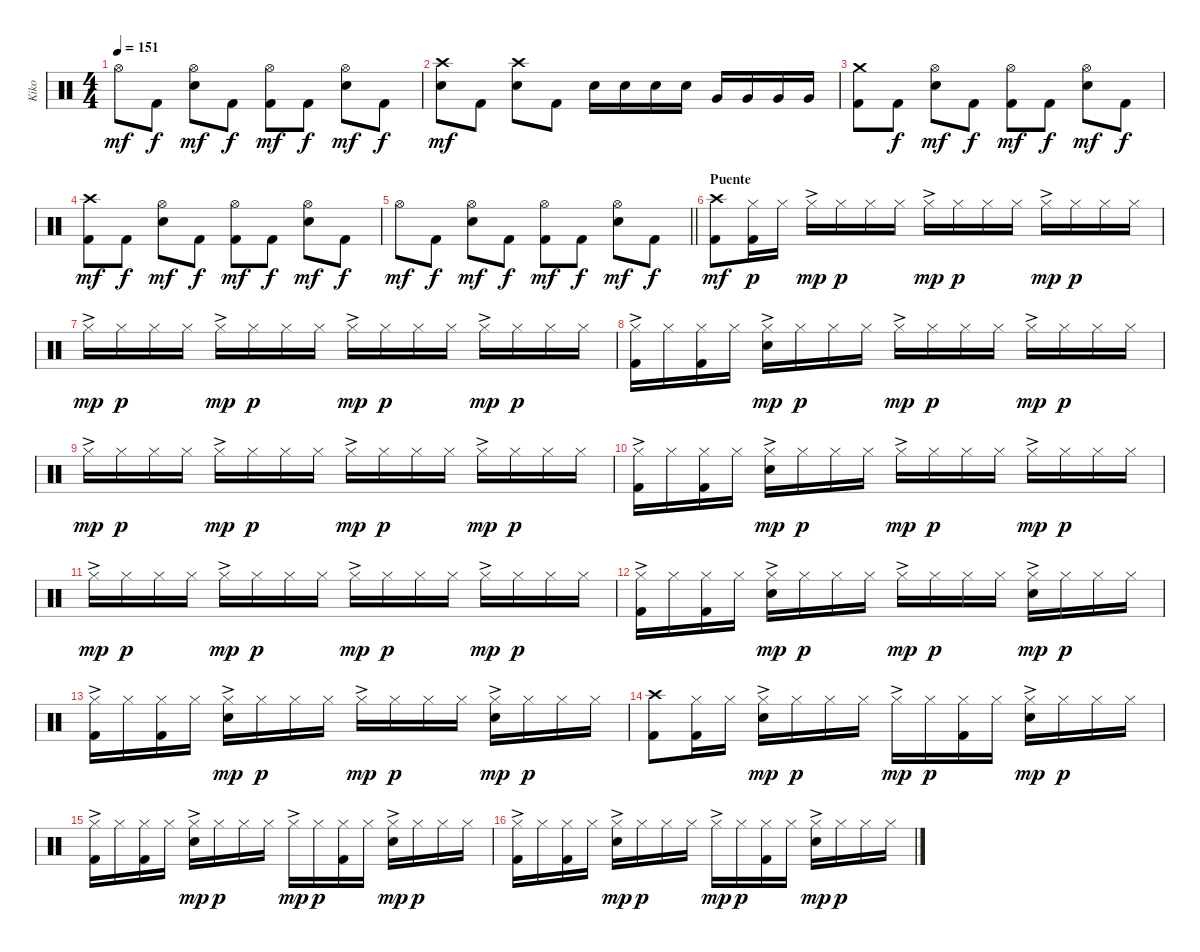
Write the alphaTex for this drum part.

\track ("Kiko" "Kiko") {instrument percussion}
\staff {score}
\articulation defaults
\ts (4 4)
\tempo 151
\clef neutral
\ks c "Hi-Hat (open)".8{dy mf} "Kick (hit) 2".8{dy f}
("Hi-Hat (open)" "Electric Snare (hit)").8{dy mf} "Kick (hit) 2".8{dy f} ("Hi-Hat (open)" "Kick (hit) 2").8{dy mf} "Kick (hit) 2".8{dy f} ("Hi-Hat (open)" "Electric Snare (hit)").8{dy mf} "Kick (hit) 2".8{dy f} |
("Crash high (hit)" "Electric Snare (hit)").8{dy mf} "Kick (hit) 2".8 ("Crash high (hit)" "Electric Snare (hit)").8 "Kick (hit) 2".8 "Electric Snare (hit)".16 "Electric Snare (hit)".16 "Electric Snare (hit)".16 "Electric Snare (hit)".16 "Very Low Tom (hit)".16 "Very Low Tom (hit)".16 "Very Low Tom (hit)".16 "Very Low Tom (hit)".16 |
("Crash medium (hit)" "Kick (hit) 2").8 "Kick (hit) 2".8{dy f} ("Hi-Hat (open)" "Electric Snare (hit)").8{dy mf} "Kick (hit) 2".8{dy f} ("Hi-Hat (open)" "Kick (hit) 2").8{dy mf} "Kick (hit) 2".8{dy f} ("Hi-Hat (open)" "Electric Snare (hit)").8{dy mf} "Kick (hit) 2".8{dy f} |
("Crash high (hit)" "Kick (hit) 2").8{dy mf} "Kick (hit) 2".8{dy f} ("Hi-Hat (open)" "Electric Snare (hit)").8{dy mf} "Kick (hit) 2".8{dy f} ("Hi-Hat (open)" "Kick (hit) 2").8{dy mf} "Kick (hit) 2".8{dy f} ("Hi-Hat (open)" "Electric Snare (hit)").8{dy mf} "Kick (hit) 2".8{dy f} |
\barLineRight lightlight "Hi-Hat (open)".8{dy mf} "Kick (hit) 2".8{dy f}
("Hi-Hat (open)" "Electric Snare (hit)").8{dy mf} "Kick (hit) 2".8{dy f} ("Hi-Hat (open)" "Kick (hit) 2").8{dy mf} "Kick (hit) 2".8{dy f} ("Hi-Hat (open)" "Electric Snare (hit)").8{dy mf} "Kick (hit) 2".8{dy f} |
\section ("" "Puente")
("Crash high (hit)" "Kick (hit) 2").8{dy mf} ("Hi-Hat (closed)" "Kick (hit) 2").16{dy p} "Hi-Hat (closed)".16 "Hi-Hat (closed)"{ac}.16{dy mp} "Hi-Hat (closed)".16{dy p} "Hi-Hat (closed)".16 "Hi-Hat (closed)".16 "Hi-Hat (closed)"{ac}.16{dy mp} "Hi-Hat (closed)".16{dy p} "Hi-Hat (closed)".16 "Hi-Hat (closed)".16 "Hi-Hat (closed)"{ac}.16{dy mp} "Hi-Hat (closed)".16{dy p} "Hi-Hat (closed)".16 "Hi-Hat (closed)".16 |
"Hi-Hat (closed)"{ac}.16{dy mp} "Hi-Hat (closed)".16{dy p} "Hi-Hat (closed)".16 "Hi-Hat (closed)".16 "Hi-Hat (closed)"{ac}.16{dy mp} "Hi-Hat (closed)".16{dy p} "Hi-Hat (closed)".16 "Hi-Hat (closed)".16 "Hi-Hat (closed)"{ac}.16{dy mp} "Hi-Hat (closed)".16{dy p} "Hi-Hat (closed)".16 "Hi-Hat (closed)".16 "Hi-Hat (closed)"{ac}.16{dy mp} "Hi-Hat (closed)".16{dy p} "Hi-Hat (closed)".16 "Hi-Hat (closed)".16 |
("Hi-Hat (closed)"{ac} "Kick (hit) 2").16 "Hi-Hat (closed)".16 ("Hi-Hat (closed)" "Kick (hit) 2").16 "Hi-Hat (closed)".16 ("Hi-Hat (closed)"{ac} "Electric Snare (hit)"{ac}).16{dy mp} "Hi-Hat (closed)".16{dy p} "Hi-Hat (closed)".16 "Hi-Hat (closed)".16 "Hi-Hat (closed)"{ac}.16{dy mp} "Hi-Hat (closed)".16{dy p} "Hi-Hat (closed)".16 "Hi-Hat (closed)".16 "Hi-Hat (closed)"{ac}.16{dy mp} "Hi-Hat (closed)".16{dy p} "Hi-Hat (closed)".16 "Hi-Hat (closed)".16 |
"Hi-Hat (closed)"{ac}.16{dy mp} "Hi-Hat (closed)".16{dy p} "Hi-Hat (closed)".16 "Hi-Hat (closed)".16 "Hi-Hat (closed)"{ac}.16{dy mp} "Hi-Hat (closed)".16{dy p} "Hi-Hat (closed)".16 "Hi-Hat (closed)".16 "Hi-Hat (closed)"{ac}.16{dy mp} "Hi-Hat (closed)".16{dy p} "Hi-Hat (closed)".16 "Hi-Hat (closed)".16 "Hi-Hat (closed)"{ac}.16{dy mp} "Hi-Hat (closed)".16{dy p} "Hi-Hat (closed)".16 "Hi-Hat (closed)".16 |
("Hi-Hat (closed)"{ac} "Kick (hit) 2").16 "Hi-Hat (closed)".16 ("Hi-Hat (closed)" "Kick (hit) 2").16 "Hi-Hat (closed)".16 ("Hi-Hat (closed)"{ac} "Electric Snare (hit)"{ac}).16{dy mp} "Hi-Hat (closed)".16{dy p} "Hi-Hat (closed)".16 "Hi-Hat (closed)".16 "Hi-Hat (closed)"{ac}.16{dy mp} "Hi-Hat (closed)".16{dy p} "Hi-Hat (closed)".16 "Hi-Hat (closed)".16 "Hi-Hat (closed)"{ac}.16{dy mp} "Hi-Hat (closed)".16{dy p} "Hi-Hat (closed)".16 "Hi-Hat (closed)".16 |
"Hi-Hat (closed)"{ac}.16{dy mp} "Hi-Hat (closed)".16{dy p} "Hi-Hat (closed)".16 "Hi-Hat (closed)".16 "Hi-Hat (closed)"{ac}.16{dy mp} "Hi-Hat (closed)".16{dy p} "Hi-Hat (closed)".16 "Hi-Hat (closed)".16 "Hi-Hat (closed)"{ac}.16{dy mp} "Hi-Hat (closed)".16{dy p} "Hi-Hat (closed)".16 "Hi-Hat (closed)".16 "Hi-Hat (closed)"{ac}.16{dy mp} "Hi-Hat (closed)".16{dy p} "Hi-Hat (closed)".16 "Hi-Hat (closed)".16 |
("Hi-Hat (closed)"{ac} "Kick (hit) 2").16 "Hi-Hat (closed)".16 ("Hi-Hat (closed)" "Kick (hit) 2").16 "Hi-Hat (closed)".16 ("Hi-Hat (closed)"{ac} "Electric Snare (hit)"{ac}).16{dy mp} "Hi-Hat (closed)".16{dy p} "Hi-Hat (closed)".16 "Hi-Hat (closed)".16 "Hi-Hat (closed)"{ac}.16{dy mp} "Hi-Hat (closed)".16{dy p} "Hi-Hat (closed)".16 "Hi-Hat (closed)".16 ("Hi-Hat (closed)"{ac} "Electric Snare (hit)"{ac}).16{dy mp} "Hi-Hat (closed)".16{dy p} "Hi-Hat (closed)".16 "Hi-Hat (closed)".16 |
("Hi-Hat (closed)"{ac} "Kick (hit) 2").16 "Hi-Hat (closed)".16 ("Hi-Hat (closed)" "Kick (hit) 2").16 "Hi-Hat (closed)".16 ("Hi-Hat (closed)"{ac} "Electric Snare (hit)"{ac}).16{dy mp} "Hi-Hat (closed)".16{dy p} "Hi-Hat (closed)".16 "Hi-Hat (closed)".16 "Hi-Hat (closed)"{ac}.16{dy mp} "Hi-Hat (closed)".16{dy p} "Hi-Hat (closed)".16 "Hi-Hat (closed)".16 ("Hi-Hat (closed)"{ac} "Electric Snare (hit)"{ac}).16{dy mp} "Hi-Hat (closed)".16{dy p} "Hi-Hat (closed)".16 "Hi-Hat (closed)".16 |
("Crash high (hit)" "Kick (hit) 2").8 ("Hi-Hat (closed)" "Kick (hit) 2").16 "Hi-Hat (closed)".16 ("Hi-Hat (closed)"{ac} "Electric Snare (hit)"{ac}).16{dy mp} "Hi-Hat (closed)".16{dy p} "Hi-Hat (closed)".16 "Hi-Hat (closed)".16 "Hi-Hat (closed)"{ac}.16{dy mp} "Hi-Hat (closed)".16{dy p} ("Hi-Hat (closed)" "Kick (hit) 2").16 "Hi-Hat (closed)".16 ("Hi-Hat (closed)"{ac} "Electric Snare (hit)"{ac}).16{dy mp} "Hi-Hat (closed)".16{dy p} "Hi-Hat (closed)".16 "Hi-Hat (closed)".16 |
("Hi-Hat (closed)"{ac} "Kick (hit) 2").16 "Hi-Hat (closed)".16 ("Hi-Hat (closed)" "Kick (hit) 2").16 "Hi-Hat (closed)".16 ("Hi-Hat (closed)"{ac} "Electric Snare (hit)"{ac}).16{dy mp} "Hi-Hat (closed)".16{dy p} "Hi-Hat (closed)".16 "Hi-Hat (closed)".16 "Hi-Hat (closed)"{ac}.16{dy mp} "Hi-Hat (closed)".16{dy p} ("Hi-Hat (closed)" "Kick (hit) 2").16 "Hi-Hat (closed)".16 ("Hi-Hat (closed)"{ac} "Electric Snare (hit)"{ac}).16{dy mp} "Hi-Hat (closed)".16{dy p} "Hi-Hat (closed)".16 "Hi-Hat (closed)".16 |
("Hi-Hat (closed)"{ac} "Kick (hit) 2").16 "Hi-Hat (closed)".16 ("Hi-Hat (closed)" "Kick (hit) 2").16 "Hi-Hat (closed)".16 ("Hi-Hat (closed)"{ac} "Electric Snare (hit)"{ac}).16{dy mp} "Hi-Hat (closed)".16{dy p} "Hi-Hat (closed)".16 "Hi-Hat (closed)".16 "Hi-Hat (closed)"{ac}.16{dy mp} "Hi-Hat (closed)".16{dy p} ("Hi-Hat (closed)" "Kick (hit) 2").16 "Hi-Hat (closed)".16 ("Hi-Hat (closed)"{ac} "Electric Snare (hit)"{ac}).16{dy mp} "Hi-Hat (closed)".16{dy p} "Hi-Hat (closed)".16 "Hi-Hat (closed)".16
